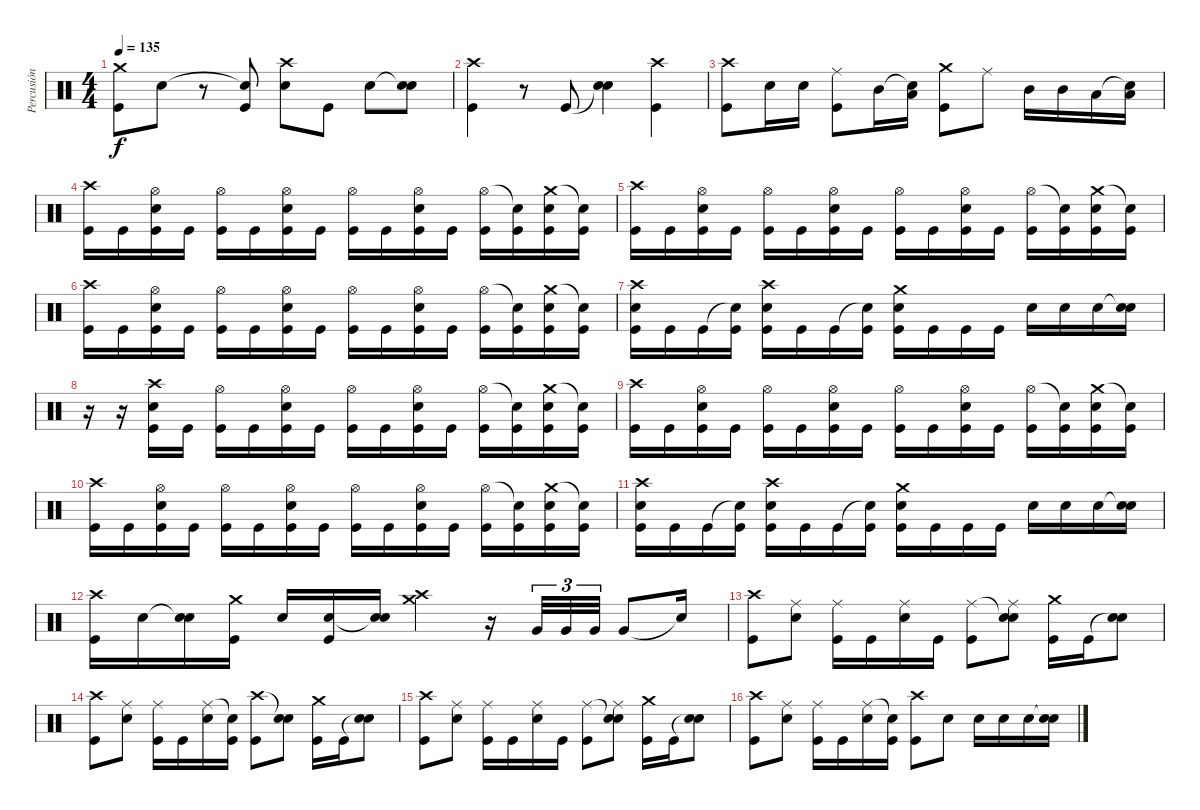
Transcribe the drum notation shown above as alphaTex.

\track ("Percusión" "Percusión") {instrument percussion}
\staff {score}
\articulation defaults
\ts (4 4)
\tempo 135
\clef neutral
\ks c
("Crash medium (hit)" "Kick (hit)").8{dy f} "Snare (hit) 2".8 r.8 ("Snare (hit)"{t} "Kick (hit)").8 ("Crash high (hit)" "Snare (hit) 2").8 "Kick (hit)".8 "Snare (hit) 2".8 ("Snare (hit)"{t} "Snare (hit) 2").8 |
("Crash high (hit)" "Kick (hit)").4 r.8 "Kick (hit)".8 ("Snare (hit)"{t} "Snare (hit) 2").4 ("Crash high (hit)" "Kick (hit)").4 |
("Crash high (hit)" "Kick (hit)").8 "Snare (hit) 2".16 "Snare (hit) 2".16 ("Ride (middle)" "Kick (hit)").8 "Mid Tom (hit)".16 ("Snare (hit)"{t} "Low Tom (hit)").16 ("Crash medium (hit)" "Kick (hit)").8 "Ride (middle)".8 "Mid Tom (hit)".16 "Mid Tom (hit)".16 "Low Tom (hit)".16 ("Snare (hit)"{t} "Low Tom (hit)").16 |
("Crash high (hit)" "Kick (hit)").16 "Kick (hit)".16 ("Hi-Hat (open)" "Snare (hit) 2" "Kick (hit)").16 "Kick (hit)".16 ("Hi-Hat (open)" "Kick (hit)").16 "Kick (hit)".16 ("Hi-Hat (open)" "Snare (hit) 2" "Kick (hit)").16 "Kick (hit)".16 ("Hi-Hat (open)" "Kick (hit)").16 "Kick (hit)".16 ("Hi-Hat (open)" "Snare (hit) 2" "Kick (hit)").16 "Kick (hit)".16 ("Hi-Hat (open)" "Kick (hit)").16 ("Snare (hit)"{t} "Kick (hit)").16 ("Crash medium (hit)" "Snare (hit) 2" "Kick (hit)").16 ("Snare (hit)"{t} "Kick (hit)").16 |
("Crash high (hit)" "Kick (hit)").16 "Kick (hit)".16 ("Hi-Hat (open)" "Snare (hit) 2" "Kick (hit)").16 "Kick (hit)".16 ("Hi-Hat (open)" "Kick (hit)").16 "Kick (hit)".16 ("Hi-Hat (open)" "Snare (hit) 2" "Kick (hit)").16 "Kick (hit)".16 ("Hi-Hat (open)" "Kick (hit)").16 "Kick (hit)".16 ("Hi-Hat (open)" "Snare (hit) 2" "Kick (hit)").16 "Kick (hit)".16 ("Hi-Hat (open)" "Kick (hit)").16 ("Snare (hit)"{t} "Kick (hit)").16 ("Crash medium (hit)" "Snare (hit) 2" "Kick (hit)").16 ("Snare (hit)"{t} "Kick (hit)").16 |
("Crash high (hit)" "Kick (hit)").16 "Kick (hit)".16 ("Hi-Hat (open)" "Snare (hit) 2" "Kick (hit)").16 "Kick (hit)".16 ("Hi-Hat (open)" "Kick (hit)").16 "Kick (hit)".16 ("Hi-Hat (open)" "Snare (hit) 2" "Kick (hit)").16 "Kick (hit)".16 ("Hi-Hat (open)" "Kick (hit)").16 "Kick (hit)".16 ("Hi-Hat (open)" "Snare (hit) 2" "Kick (hit)").16 "Kick (hit)".16 ("Hi-Hat (open)" "Kick (hit)").16 ("Snare (hit)"{t} "Kick (hit)").16 ("Crash medium (hit)" "Snare (hit) 2" "Kick (hit)").16 ("Snare (hit)"{t} "Kick (hit)").16 |
("Crash high (hit)" "Snare (hit) 2" "Kick (hit)").16 "Kick (hit)".16 "Kick (hit)".16 ("Snare (hit)"{t} "Kick (hit)").16 ("Crash high (hit)" "Snare (hit) 2" "Kick (hit)").16 "Kick (hit)".16 "Kick (hit)".16 ("Snare (hit)"{t} "Kick (hit)").16 ("Crash medium (hit)" "Snare (hit) 2" "Kick (hit)").16 "Kick (hit)".16 "Kick (hit)".16 "Kick (hit)".16 "Snare (hit) 2".16 "Snare (hit) 2".16 "Snare (hit) 2".16 ("Snare (hit)"{t} "Snare (hit) 2").16 |
r.16 r.16 ("Crash high (hit)" "Snare (hit) 2" "Kick (hit)").16 "Kick (hit)".16 ("Hi-Hat (open)" "Kick (hit)").16 "Kick (hit)".16 ("Hi-Hat (open)" "Snare (hit) 2" "Kick (hit)").16 "Kick (hit)".16 ("Hi-Hat (open)" "Kick (hit)").16 "Kick (hit)".16 ("Hi-Hat (open)" "Snare (hit) 2" "Kick (hit)").16 "Kick (hit)".16 ("Hi-Hat (open)" "Kick (hit)").16 ("Snare (hit)"{t} "Kick (hit)").16 ("Crash medium (hit)" "Snare (hit) 2" "Kick (hit)").16 ("Snare (hit)"{t} "Kick (hit)").16 |
("Crash high (hit)" "Kick (hit)").16 "Kick (hit)".16 ("Hi-Hat (open)" "Snare (hit) 2" "Kick (hit)").16 "Kick (hit)".16 ("Hi-Hat (open)" "Kick (hit)").16 "Kick (hit)".16 ("Hi-Hat (open)" "Snare (hit) 2" "Kick (hit)").16 "Kick (hit)".16 ("Hi-Hat (open)" "Kick (hit)").16 "Kick (hit)".16 ("Hi-Hat (open)" "Snare (hit) 2" "Kick (hit)").16 "Kick (hit)".16 ("Hi-Hat (open)" "Kick (hit)").16 ("Snare (hit)"{t} "Kick (hit)").16 ("Crash medium (hit)" "Snare (hit) 2" "Kick (hit)").16 ("Snare (hit)"{t} "Kick (hit)").16 |
("Crash high (hit)" "Kick (hit)").16 "Kick (hit)".16 ("Hi-Hat (open)" "Snare (hit) 2" "Kick (hit)").16 "Kick (hit)".16 ("Hi-Hat (open)" "Kick (hit)").16 "Kick (hit)".16 ("Hi-Hat (open)" "Snare (hit) 2" "Kick (hit)").16 "Kick (hit)".16 ("Hi-Hat (open)" "Kick (hit)").16 "Kick (hit)".16 ("Hi-Hat (open)" "Snare (hit) 2" "Kick (hit)").16 "Kick (hit)".16 ("Hi-Hat (open)" "Kick (hit)").16 ("Snare (hit)"{t} "Kick (hit)").16 ("Crash medium (hit)" "Snare (hit) 2" "Kick (hit)").16 ("Snare (hit)"{t} "Kick (hit)").16 |
("Crash high (hit)" "Snare (hit) 2" "Kick (hit)").16 "Kick (hit)".16 "Kick (hit)".16 ("Snare (hit)"{t} "Kick (hit)").16 ("Crash high (hit)" "Snare (hit) 2" "Kick (hit)").16 "Kick (hit)".16 "Kick (hit)".16 ("Snare (hit)"{t} "Kick (hit)").16 ("Crash medium (hit)" "Snare (hit) 2" "Kick (hit)").16 "Kick (hit)".16 "Kick (hit)".16 "Kick (hit)".16 "Snare (hit) 2".16 "Snare (hit) 2".16 "Snare (hit) 2".16 ("Snare (hit)"{t} "Snare (hit) 2").16 |
("Crash high (hit)" "Kick (hit)").16 "Snare (hit) 2".16 ("Snare (hit)"{t} "Snare (hit) 2").16 ("Crash medium (hit)" "Kick (hit)").16 "Snare (hit) 2".16 ("Snare (hit) 2" "Kick (hit)").16 ("Snare (hit)"{t} "Snare (hit) 2").16 ("Crash high (hit)" "Crash medium (hit)").4 r.16 "Very Low Tom (hit)".32{tu (3 2)} "Very Low Tom (hit)".32{tu (3 2)} "Very Low Tom (hit)".32{tu (3 2)} "Very Low Tom (hit)".8 "Snare (hit)"{t}.16 |
("Crash high (hit)" "Kick (hit)").8 ("Ride (middle)" "Snare (hit) 2").8 ("Ride (middle)" "Kick (hit)").16 "Kick (hit)".16 ("Ride (middle)" "Snare (hit) 2").16 "Kick (hit)".16 ("Ride (middle)" "Kick (hit)").8 ("Snare (hit)"{t} "Ride (middle)" "Snare (hit) 2").8 ("Crash medium (hit)" "Kick (hit)").16 "Kick (hit)".16 ("Snare (hit)"{t} "Snare (hit) 2").8 |
("Crash high (hit)" "Kick (hit)").8 ("Ride (middle)" "Snare (hit) 2").8 ("Ride (middle)" "Kick (hit)").16 "Kick (hit)".16 ("Ride (middle)" "Snare (hit) 2").16 ("Snare (hit)"{t} "Kick (hit)").16 ("Crash high (hit)" "Kick (hit)").8 ("Snare (hit)"{t} "Snare (hit) 2").8 ("Crash medium (hit)" "Kick (hit)").16 "Kick (hit)".16 ("Snare (hit)"{t} "Snare (hit) 2").8 |
("Crash high (hit)" "Kick (hit)").8 ("Ride (middle)" "Snare (hit) 2").8 ("Ride (middle)" "Kick (hit)").16 "Kick (hit)".16 ("Ride (middle)" "Snare (hit) 2").16 "Kick (hit)".16 ("Ride (middle)" "Kick (hit)").8 ("Snare (hit)"{t} "Ride (middle)" "Snare (hit) 2").8 ("Crash medium (hit)" "Kick (hit)").16 "Kick (hit)".16 ("Snare (hit)"{t} "Snare (hit) 2").8 |
("Crash high (hit)" "Kick (hit)").8 ("Ride (middle)" "Snare (hit) 2").8 ("Ride (middle)" "Kick (hit)").16 "Kick (hit)".16 ("Ride (middle)" "Snare (hit) 2").16 ("Snare (hit)"{t} "Kick (hit)").16 ("Crash high (hit)" "Kick (hit)").8 "Snare (hit) 2".8 "Snare (hit) 2".16 "Snare (hit) 2".16 "Snare (hit) 2".16 ("Snare (hit)"{t} "Snare (hit) 2").16
